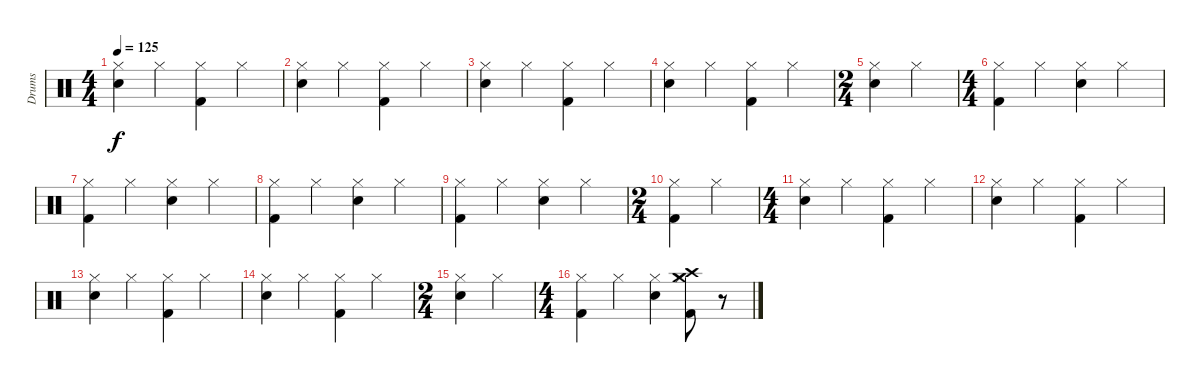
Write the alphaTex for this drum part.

\track ("Drums" "Drums") {instrument percussion}
\staff {score}
\articulation defaults
\ts (4 4)
\tempo 125
\clef neutral
\ks c
("Hi-Hat (closed)" "Electric Snare (hit)").4{dy f} "Hi-Hat (closed)".4 ("Hi-Hat (closed)" "Kick (hit) 2").4 "Hi-Hat (closed)".4 |
("Hi-Hat (closed)" "Electric Snare (hit)").4 "Hi-Hat (closed)".4 ("Hi-Hat (closed)" "Kick (hit) 2").4 "Hi-Hat (closed)".4 |
("Hi-Hat (closed)" "Electric Snare (hit)").4 "Hi-Hat (closed)".4 ("Hi-Hat (closed)" "Kick (hit) 2").4 "Hi-Hat (closed)".4 |
("Hi-Hat (closed)" "Electric Snare (hit)").4 "Hi-Hat (closed)".4 ("Hi-Hat (closed)" "Kick (hit) 2").4 "Hi-Hat (closed)".4 |
\ts (2 4)
("Hi-Hat (closed)" "Electric Snare (hit)").4 "Hi-Hat (closed)".4 |
\ts (4 4)
("Hi-Hat (closed)" "Kick (hit) 2").4 "Hi-Hat (closed)".4 ("Hi-Hat (closed)" "Electric Snare (hit)").4 "Hi-Hat (closed)".4 |
("Hi-Hat (closed)" "Kick (hit) 2").4 "Hi-Hat (closed)".4 ("Hi-Hat (closed)" "Electric Snare (hit)").4 "Hi-Hat (closed)".4 |
("Hi-Hat (closed)" "Kick (hit) 2").4 "Hi-Hat (closed)".4 ("Hi-Hat (closed)" "Electric Snare (hit)").4 "Hi-Hat (closed)".4 |
("Hi-Hat (closed)" "Kick (hit) 2").4 "Hi-Hat (closed)".4 ("Hi-Hat (closed)" "Electric Snare (hit)").4 "Hi-Hat (closed)".4 |
\ts (2 4)
("Hi-Hat (closed)" "Kick (hit) 2").4 "Hi-Hat (closed)".4 |
\ts (4 4)
("Hi-Hat (closed)" "Electric Snare (hit)").4 "Hi-Hat (closed)".4 ("Hi-Hat (closed)" "Kick (hit) 2").4 "Hi-Hat (closed)".4 |
("Hi-Hat (closed)" "Electric Snare (hit)").4 "Hi-Hat (closed)".4 ("Hi-Hat (closed)" "Kick (hit) 2").4 "Hi-Hat (closed)".4 |
("Hi-Hat (closed)" "Electric Snare (hit)").4 "Hi-Hat (closed)".4 ("Hi-Hat (closed)" "Kick (hit) 2").4 "Hi-Hat (closed)".4 |
("Hi-Hat (closed)" "Electric Snare (hit)").4 "Hi-Hat (closed)".4 ("Hi-Hat (closed)" "Kick (hit) 2").4 "Hi-Hat (closed)".4 |
\ts (2 4)
("Hi-Hat (closed)" "Electric Snare (hit)").4 "Hi-Hat (closed)".4 |
\ts (4 4)
("Hi-Hat (closed)" "Kick (hit) 2").4 "Hi-Hat (closed)".4 ("Hi-Hat (closed)" "Electric Snare (hit)").4 ("Crash medium (hit)" "Crash high (hit)" "Hi-Hat (closed)" "Kick (hit) 2").8 r.8
